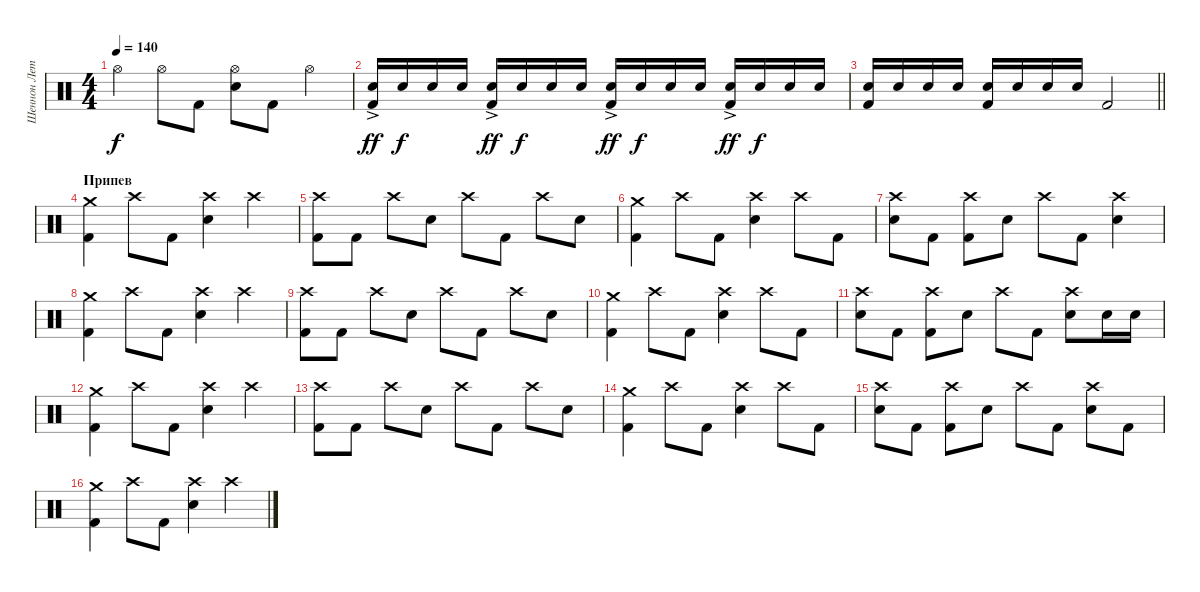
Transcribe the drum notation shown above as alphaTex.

\track ("Шеннон Лето" "Шеннон Лет") {instrument percussion}
\staff {score}
\articulation defaults
\ts (4 4)
\tempo 140
\clef neutral
\ks c "Hi-Hat (open)".4{dy f} "Hi-Hat (open)".8 "Kick (hit) 2".8
("Hi-Hat (open)" "Electric Snare (hit)").8 "Kick (hit) 2".8 "Hi-Hat (open)".4 |
("Electric Snare (hit)"{ac} "Kick (hit) 2").16{dy ff volume 7} "Electric Snare (hit)".16{dy f volume 15} "Electric Snare (hit)".16 "Electric Snare (hit)".16 ("Electric Snare (hit)"{ac} "Kick (hit) 2").16{dy ff} "Electric Snare (hit)".16{dy f} "Electric Snare (hit)".16 "Electric Snare (hit)".16 ("Electric Snare (hit)"{ac} "Kick (hit) 2").16{dy ff} "Electric Snare (hit)".16{dy f} "Electric Snare (hit)".16 "Electric Snare (hit)".16 ("Electric Snare (hit)"{ac} "Kick (hit) 2").16{dy ff} "Electric Snare (hit)".16{dy f} "Electric Snare (hit)".16 "Electric Snare (hit)".16 |
\barLineRight lightlight
("Electric Snare (hit)" "Kick (hit) 2").16 "Electric Snare (hit)".16 "Electric Snare (hit)".16 "Electric Snare (hit)".16 ("Electric Snare (hit)" "Kick (hit) 2").16 "Electric Snare (hit)".16 "Electric Snare (hit)".16 "Electric Snare (hit)".16 "Kick (hit) 2".2 |
\section ("" "Припев")
("Crash medium (hit)" "Kick (hit) 2").4 "Crash high (hit)".8 "Kick (hit) 2".8 ("Crash high (hit)" "Electric Snare (hit)").4 "Crash high (hit)".4 |
("Crash high (hit)" "Kick (hit) 2").8 "Kick (hit) 2".8 "Crash high (hit)".8 "Electric Snare (hit)".8 "Crash high (hit)".8 "Kick (hit) 2".8 "Crash high (hit)".8 "Electric Snare (hit)".8 |
("Crash medium (hit)" "Kick (hit) 2").4 "Crash high (hit)".8 "Kick (hit) 2".8 ("Crash high (hit)" "Electric Snare (hit)").4 "Crash high (hit)".8 "Kick (hit) 2".8 |
("Crash high (hit)" "Electric Snare (hit)").8 "Kick (hit) 2".8 ("Crash high (hit)" "Kick (hit) 2").8 "Electric Snare (hit)".8 "Crash high (hit)".8 "Kick (hit) 2".8 ("Crash high (hit)" "Electric Snare (hit)").4 |
("Crash medium (hit)" "Kick (hit) 2").4 "Crash high (hit)".8 "Kick (hit) 2".8 ("Crash high (hit)" "Electric Snare (hit)").4 "Crash high (hit)".4 |
("Crash high (hit)" "Kick (hit) 2").8 "Kick (hit) 2".8 "Crash high (hit)".8 "Electric Snare (hit)".8 "Crash high (hit)".8 "Kick (hit) 2".8 "Crash high (hit)".8 "Electric Snare (hit)".8 |
("Crash medium (hit)" "Kick (hit) 2").4 "Crash high (hit)".8 "Kick (hit) 2".8 ("Crash high (hit)" "Electric Snare (hit)").4 "Crash high (hit)".8 "Kick (hit) 2".8 |
("Crash high (hit)" "Electric Snare (hit)").8 "Kick (hit) 2".8 ("Crash high (hit)" "Kick (hit) 2").8 "Electric Snare (hit)".8 "Crash high (hit)".8 "Kick (hit) 2".8 ("Crash high (hit)" "Electric Snare (hit)").8 "Electric Snare (hit)".16 "Electric Snare (hit)".16 |
("Crash medium (hit)" "Kick (hit) 2").4 "Crash high (hit)".8 "Kick (hit) 2".8 ("Crash high (hit)" "Electric Snare (hit)").4 "Crash high (hit)".4 |
("Crash high (hit)" "Kick (hit) 2").8 "Kick (hit) 2".8 "Crash high (hit)".8 "Electric Snare (hit)".8 "Crash high (hit)".8 "Kick (hit) 2".8 "Crash high (hit)".8 "Electric Snare (hit)".8 |
("Crash medium (hit)" "Kick (hit) 2").4 "Crash high (hit)".8 "Kick (hit) 2".8 ("Crash high (hit)" "Electric Snare (hit)").4 "Crash high (hit)".8 "Kick (hit) 2".8 |
("Crash high (hit)" "Electric Snare (hit)").8 "Kick (hit) 2".8 ("Crash high (hit)" "Kick (hit) 2").8 "Electric Snare (hit)".8 "Crash high (hit)".8 "Kick (hit) 2".8 ("Crash high (hit)" "Electric Snare (hit)").8 "Kick (hit) 2".8 |
("Crash medium (hit)" "Kick (hit) 2").4 "Crash high (hit)".8 "Kick (hit) 2".8 ("Crash high (hit)" "Electric Snare (hit)").4 "Crash high (hit)".4
